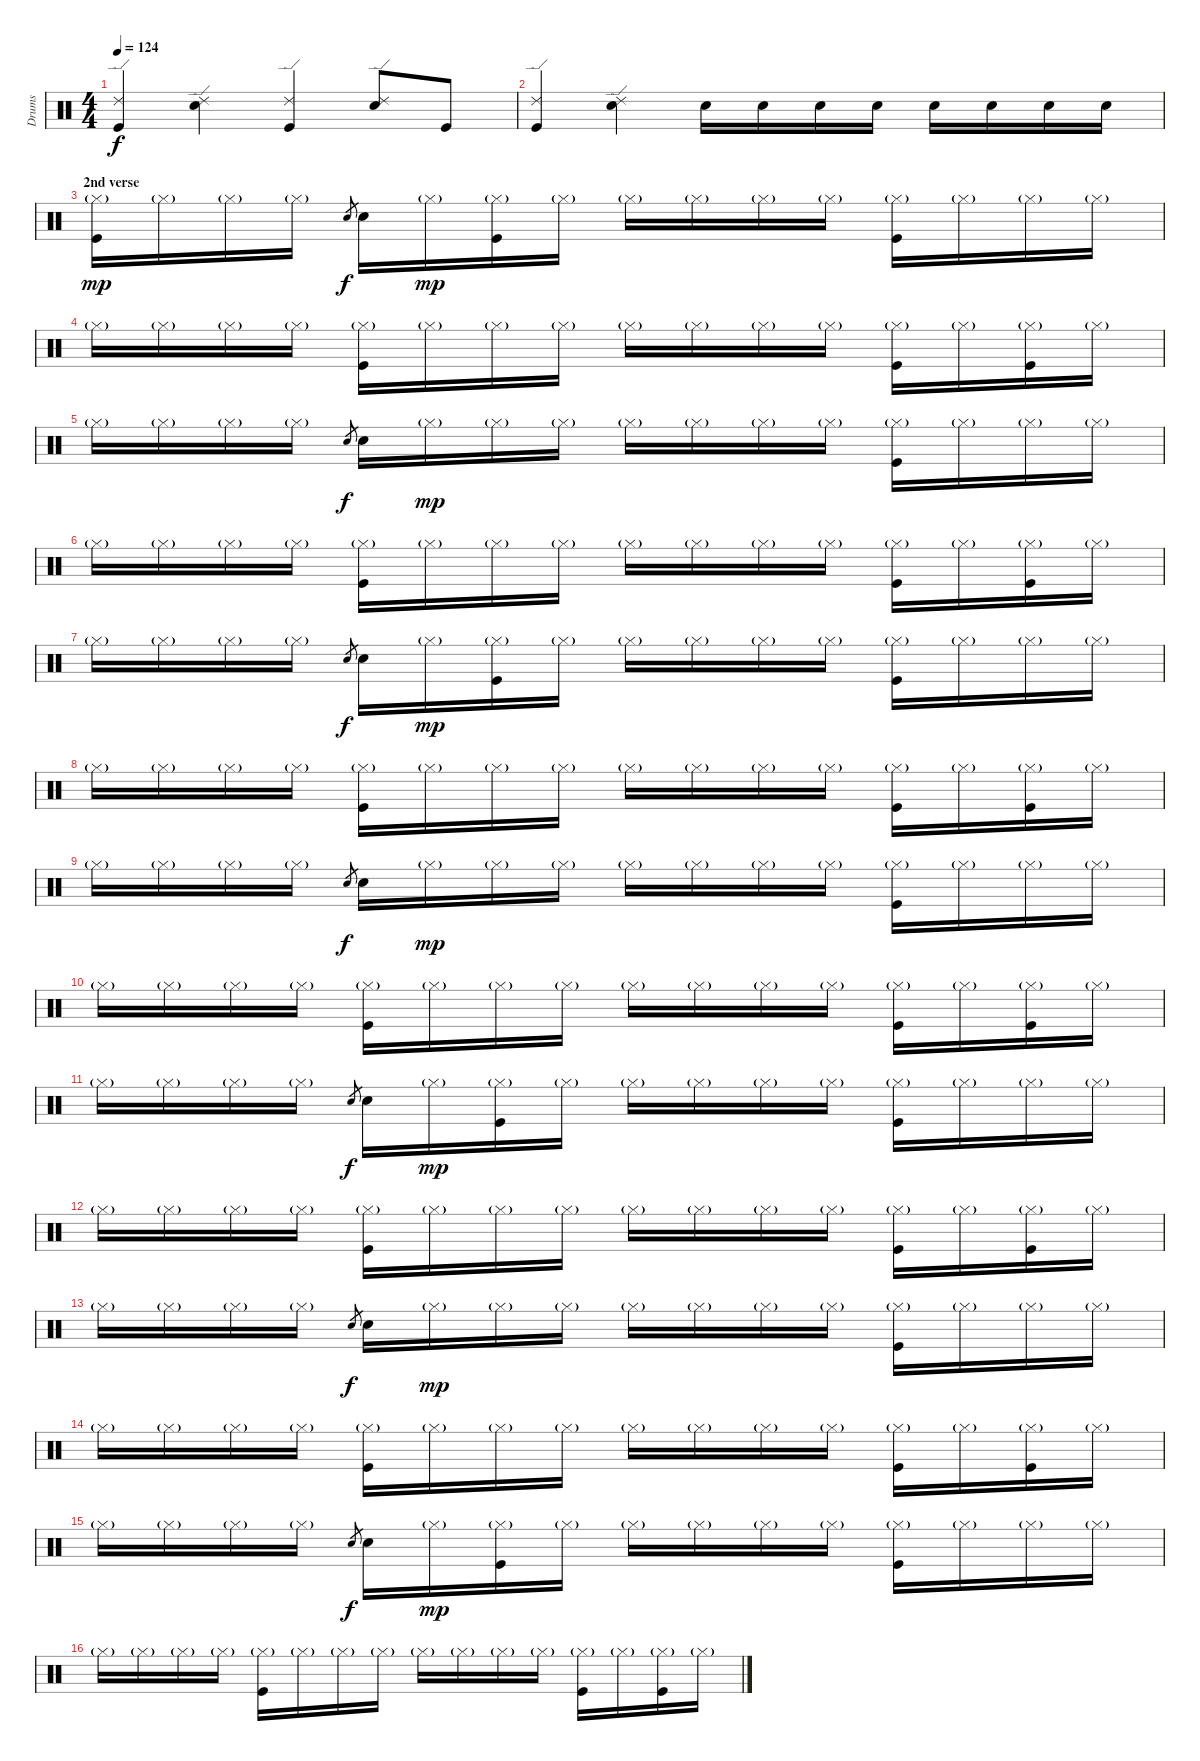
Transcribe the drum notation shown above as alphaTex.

\track ("Drums" "Drums") {instrument percussion}
\staff {score}
\articulation defaults
\ts (4 4)
\tempo 124
\clef neutral
\ks c
("Ride (edge) 2" "Kick (hit)").4{dy f} ("Ride (edge) 2" "Snare (hit) 2").4 ("Ride (edge) 2" "Kick (hit)").4 ("Ride (edge) 2" "Snare (hit) 2").8 "Kick (hit)".8 |
("Ride (edge) 2" "Kick (hit)").4 ("Ride (edge) 2" "Snare (hit) 2").4 "Snare (hit) 2".16 "Snare (hit) 2".16 "Snare (hit) 2".16 "Snare (hit) 2".16 "Snare (hit) 2".16 "Snare (hit) 2".16 "Snare (hit) 2".16 "Snare (hit) 2".16 |
\section ("" "2nd verse")
("Hi-Hat (closed)"{g} "Kick (hit)").16{dy mp} "Hi-Hat (closed)"{g}.16 "Hi-Hat (closed)"{g}.16 "Hi-Hat (closed)"{g}.16 "Snare (hit) 2"{h}.8{gr dy f} "Snare (hit) 2".16 "Hi-Hat (closed)"{g}.16{dy mp} ("Hi-Hat (closed)"{g} "Kick (hit)").16 "Hi-Hat (closed)"{g}.16 "Hi-Hat (closed)"{g}.16 "Hi-Hat (closed)"{g}.16 "Hi-Hat (closed)"{g}.16 "Hi-Hat (closed)"{g}.16 ("Hi-Hat (closed)"{g} "Kick (hit)").16 "Hi-Hat (closed)"{g}.16 "Hi-Hat (closed)"{g}.16 "Hi-Hat (closed)"{g}.16 |
"Hi-Hat (closed)"{g}.16 "Hi-Hat (closed)"{g}.16 "Hi-Hat (closed)"{g}.16 "Hi-Hat (closed)"{g}.16 ("Hi-Hat (closed)"{g} "Kick (hit)").16 "Hi-Hat (closed)"{g}.16 "Hi-Hat (closed)"{g}.16 "Hi-Hat (closed)"{g}.16 "Hi-Hat (closed)"{g}.16 "Hi-Hat (closed)"{g}.16 "Hi-Hat (closed)"{g}.16 "Hi-Hat (closed)"{g}.16 ("Hi-Hat (closed)"{g} "Kick (hit)").16 "Hi-Hat (closed)"{g}.16 ("Hi-Hat (closed)"{g} "Kick (hit)").16 "Hi-Hat (closed)"{g}.16 |
"Hi-Hat (closed)"{g}.16 "Hi-Hat (closed)"{g}.16 "Hi-Hat (closed)"{g}.16 "Hi-Hat (closed)"{g}.16 "Snare (hit) 2"{h}.8{gr dy f} "Snare (hit) 2".16 "Hi-Hat (closed)"{g}.16{dy mp} "Hi-Hat (closed)"{g}.16 "Hi-Hat (closed)"{g}.16 "Hi-Hat (closed)"{g}.16 "Hi-Hat (closed)"{g}.16 "Hi-Hat (closed)"{g}.16 "Hi-Hat (closed)"{g}.16 ("Hi-Hat (closed)"{g} "Kick (hit)").16 "Hi-Hat (closed)"{g}.16 "Hi-Hat (closed)"{g}.16 "Hi-Hat (closed)"{g}.16 |
"Hi-Hat (closed)"{g}.16 "Hi-Hat (closed)"{g}.16 "Hi-Hat (closed)"{g}.16 "Hi-Hat (closed)"{g}.16 ("Hi-Hat (closed)"{g} "Kick (hit)").16 "Hi-Hat (closed)"{g}.16 "Hi-Hat (closed)"{g}.16 "Hi-Hat (closed)"{g}.16 "Hi-Hat (closed)"{g}.16 "Hi-Hat (closed)"{g}.16 "Hi-Hat (closed)"{g}.16 "Hi-Hat (closed)"{g}.16 ("Hi-Hat (closed)"{g} "Kick (hit)").16 "Hi-Hat (closed)"{g}.16 ("Hi-Hat (closed)"{g} "Kick (hit)").16 "Hi-Hat (closed)"{g}.16 |
"Hi-Hat (closed)"{g}.16 "Hi-Hat (closed)"{g}.16 "Hi-Hat (closed)"{g}.16 "Hi-Hat (closed)"{g}.16 "Snare (hit) 2"{h}.8{gr dy f} "Snare (hit) 2".16 "Hi-Hat (closed)"{g}.16{dy mp} ("Hi-Hat (closed)"{g} "Kick (hit)").16 "Hi-Hat (closed)"{g}.16 "Hi-Hat (closed)"{g}.16 "Hi-Hat (closed)"{g}.16 "Hi-Hat (closed)"{g}.16 "Hi-Hat (closed)"{g}.16 ("Hi-Hat (closed)"{g} "Kick (hit)").16 "Hi-Hat (closed)"{g}.16 "Hi-Hat (closed)"{g}.16 "Hi-Hat (closed)"{g}.16 |
"Hi-Hat (closed)"{g}.16 "Hi-Hat (closed)"{g}.16 "Hi-Hat (closed)"{g}.16 "Hi-Hat (closed)"{g}.16 ("Hi-Hat (closed)"{g} "Kick (hit)").16 "Hi-Hat (closed)"{g}.16 "Hi-Hat (closed)"{g}.16 "Hi-Hat (closed)"{g}.16 "Hi-Hat (closed)"{g}.16 "Hi-Hat (closed)"{g}.16 "Hi-Hat (closed)"{g}.16 "Hi-Hat (closed)"{g}.16 ("Hi-Hat (closed)"{g} "Kick (hit)").16 "Hi-Hat (closed)"{g}.16 ("Hi-Hat (closed)"{g} "Kick (hit)").16 "Hi-Hat (closed)"{g}.16 |
"Hi-Hat (closed)"{g}.16 "Hi-Hat (closed)"{g}.16 "Hi-Hat (closed)"{g}.16 "Hi-Hat (closed)"{g}.16 "Snare (hit) 2"{h}.8{gr dy f} "Snare (hit) 2".16 "Hi-Hat (closed)"{g}.16{dy mp} "Hi-Hat (closed)"{g}.16 "Hi-Hat (closed)"{g}.16 "Hi-Hat (closed)"{g}.16 "Hi-Hat (closed)"{g}.16 "Hi-Hat (closed)"{g}.16 "Hi-Hat (closed)"{g}.16 ("Hi-Hat (closed)"{g} "Kick (hit)").16 "Hi-Hat (closed)"{g}.16 "Hi-Hat (closed)"{g}.16 "Hi-Hat (closed)"{g}.16 |
"Hi-Hat (closed)"{g}.16 "Hi-Hat (closed)"{g}.16 "Hi-Hat (closed)"{g}.16 "Hi-Hat (closed)"{g}.16 ("Hi-Hat (closed)"{g} "Kick (hit)").16 "Hi-Hat (closed)"{g}.16 "Hi-Hat (closed)"{g}.16 "Hi-Hat (closed)"{g}.16 "Hi-Hat (closed)"{g}.16 "Hi-Hat (closed)"{g}.16 "Hi-Hat (closed)"{g}.16 "Hi-Hat (closed)"{g}.16 ("Hi-Hat (closed)"{g} "Kick (hit)").16 "Hi-Hat (closed)"{g}.16 ("Hi-Hat (closed)"{g} "Kick (hit)").16 "Hi-Hat (closed)"{g}.16 |
"Hi-Hat (closed)"{g}.16 "Hi-Hat (closed)"{g}.16 "Hi-Hat (closed)"{g}.16 "Hi-Hat (closed)"{g}.16 "Snare (hit) 2"{h}.8{gr dy f} "Snare (hit) 2".16 "Hi-Hat (closed)"{g}.16{dy mp} ("Hi-Hat (closed)"{g} "Kick (hit)").16 "Hi-Hat (closed)"{g}.16 "Hi-Hat (closed)"{g}.16 "Hi-Hat (closed)"{g}.16 "Hi-Hat (closed)"{g}.16 "Hi-Hat (closed)"{g}.16 ("Hi-Hat (closed)"{g} "Kick (hit)").16 "Hi-Hat (closed)"{g}.16 "Hi-Hat (closed)"{g}.16 "Hi-Hat (closed)"{g}.16 |
"Hi-Hat (closed)"{g}.16 "Hi-Hat (closed)"{g}.16 "Hi-Hat (closed)"{g}.16 "Hi-Hat (closed)"{g}.16 ("Hi-Hat (closed)"{g} "Kick (hit)").16 "Hi-Hat (closed)"{g}.16 "Hi-Hat (closed)"{g}.16 "Hi-Hat (closed)"{g}.16 "Hi-Hat (closed)"{g}.16 "Hi-Hat (closed)"{g}.16 "Hi-Hat (closed)"{g}.16 "Hi-Hat (closed)"{g}.16 ("Hi-Hat (closed)"{g} "Kick (hit)").16 "Hi-Hat (closed)"{g}.16 ("Hi-Hat (closed)"{g} "Kick (hit)").16 "Hi-Hat (closed)"{g}.16 |
"Hi-Hat (closed)"{g}.16 "Hi-Hat (closed)"{g}.16 "Hi-Hat (closed)"{g}.16 "Hi-Hat (closed)"{g}.16 "Snare (hit) 2"{h}.8{gr dy f} "Snare (hit) 2".16 "Hi-Hat (closed)"{g}.16{dy mp} "Hi-Hat (closed)"{g}.16 "Hi-Hat (closed)"{g}.16 "Hi-Hat (closed)"{g}.16 "Hi-Hat (closed)"{g}.16 "Hi-Hat (closed)"{g}.16 "Hi-Hat (closed)"{g}.16 ("Hi-Hat (closed)"{g} "Kick (hit)").16 "Hi-Hat (closed)"{g}.16 "Hi-Hat (closed)"{g}.16 "Hi-Hat (closed)"{g}.16 |
"Hi-Hat (closed)"{g}.16 "Hi-Hat (closed)"{g}.16 "Hi-Hat (closed)"{g}.16 "Hi-Hat (closed)"{g}.16 ("Hi-Hat (closed)"{g} "Kick (hit)").16 "Hi-Hat (closed)"{g}.16 "Hi-Hat (closed)"{g}.16 "Hi-Hat (closed)"{g}.16 "Hi-Hat (closed)"{g}.16 "Hi-Hat (closed)"{g}.16 "Hi-Hat (closed)"{g}.16 "Hi-Hat (closed)"{g}.16 ("Hi-Hat (closed)"{g} "Kick (hit)").16 "Hi-Hat (closed)"{g}.16 ("Hi-Hat (closed)"{g} "Kick (hit)").16 "Hi-Hat (closed)"{g}.16 |
"Hi-Hat (closed)"{g}.16 "Hi-Hat (closed)"{g}.16 "Hi-Hat (closed)"{g}.16 "Hi-Hat (closed)"{g}.16 "Snare (hit) 2"{h}.8{gr dy f} "Snare (hit) 2".16 "Hi-Hat (closed)"{g}.16{dy mp} ("Hi-Hat (closed)"{g} "Kick (hit)").16 "Hi-Hat (closed)"{g}.16 "Hi-Hat (closed)"{g}.16 "Hi-Hat (closed)"{g}.16 "Hi-Hat (closed)"{g}.16 "Hi-Hat (closed)"{g}.16 ("Hi-Hat (closed)"{g} "Kick (hit)").16 "Hi-Hat (closed)"{g}.16 "Hi-Hat (closed)"{g}.16 "Hi-Hat (closed)"{g}.16 |
"Hi-Hat (closed)"{g}.16 "Hi-Hat (closed)"{g}.16 "Hi-Hat (closed)"{g}.16 "Hi-Hat (closed)"{g}.16 ("Hi-Hat (closed)"{g} "Kick (hit)").16 "Hi-Hat (closed)"{g}.16 "Hi-Hat (closed)"{g}.16 "Hi-Hat (closed)"{g}.16 "Hi-Hat (closed)"{g}.16 "Hi-Hat (closed)"{g}.16 "Hi-Hat (closed)"{g}.16 "Hi-Hat (closed)"{g}.16 ("Hi-Hat (closed)"{g} "Kick (hit)").16 "Hi-Hat (closed)"{g}.16 ("Hi-Hat (closed)"{g} "Kick (hit)").16 "Hi-Hat (closed)"{g}.16
